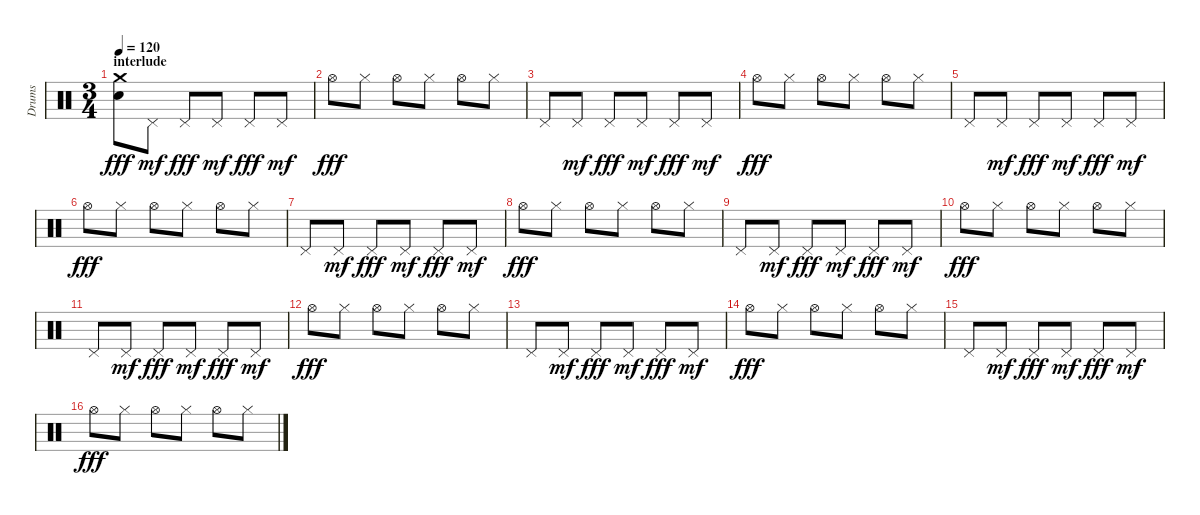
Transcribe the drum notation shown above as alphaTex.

\track ("Drums" "Drums") {instrument percussion}
\staff {score}
\articulation defaults
\ts (3 4)
\section ("" "interlude")
\tempo 120
\clef neutral
\ks c
("Crash medium (hit)" "Electric Snare (hit)").8{dy fff} "Pedal Hi-Hat (hit)".8{dy mf} "Pedal Hi-Hat (hit)".8{dy fff} "Pedal Hi-Hat (hit)".8{dy mf} "Pedal Hi-Hat (hit)".8{dy fff} "Pedal Hi-Hat (hit)".8{dy mf} |
"Hi-Hat (open)".8{dy fff} "Hi-Hat (closed)".8 "Hi-Hat (open)".8 "Hi-Hat (closed)".8 "Hi-Hat (open)".8 "Hi-Hat (closed)".8 |
"Pedal Hi-Hat (hit)".8 "Pedal Hi-Hat (hit)".8{dy mf} "Pedal Hi-Hat (hit)".8{dy fff} "Pedal Hi-Hat (hit)".8{dy mf} "Pedal Hi-Hat (hit)".8{dy fff} "Pedal Hi-Hat (hit)".8{dy mf} |
"Hi-Hat (open)".8{dy fff} "Hi-Hat (closed)".8 "Hi-Hat (open)".8 "Hi-Hat (closed)".8 "Hi-Hat (open)".8 "Hi-Hat (closed)".8 |
"Pedal Hi-Hat (hit)".8 "Pedal Hi-Hat (hit)".8{dy mf} "Pedal Hi-Hat (hit)".8{dy fff} "Pedal Hi-Hat (hit)".8{dy mf} "Pedal Hi-Hat (hit)".8{dy fff} "Pedal Hi-Hat (hit)".8{dy mf} |
"Hi-Hat (open)".8{dy fff} "Hi-Hat (closed)".8 "Hi-Hat (open)".8 "Hi-Hat (closed)".8 "Hi-Hat (open)".8 "Hi-Hat (closed)".8 |
"Pedal Hi-Hat (hit)".8 "Pedal Hi-Hat (hit)".8{dy mf} "Pedal Hi-Hat (hit)".8{dy fff} "Pedal Hi-Hat (hit)".8{dy mf} "Pedal Hi-Hat (hit)".8{dy fff} "Pedal Hi-Hat (hit)".8{dy mf} |
"Hi-Hat (open)".8{dy fff} "Hi-Hat (closed)".8 "Hi-Hat (open)".8 "Hi-Hat (closed)".8 "Hi-Hat (open)".8 "Hi-Hat (closed)".8 |
"Pedal Hi-Hat (hit)".8 "Pedal Hi-Hat (hit)".8{dy mf} "Pedal Hi-Hat (hit)".8{dy fff} "Pedal Hi-Hat (hit)".8{dy mf} "Pedal Hi-Hat (hit)".8{dy fff} "Pedal Hi-Hat (hit)".8{dy mf} |
"Hi-Hat (open)".8{dy fff} "Hi-Hat (closed)".8 "Hi-Hat (open)".8 "Hi-Hat (closed)".8 "Hi-Hat (open)".8 "Hi-Hat (closed)".8 |
"Pedal Hi-Hat (hit)".8 "Pedal Hi-Hat (hit)".8{dy mf} "Pedal Hi-Hat (hit)".8{dy fff} "Pedal Hi-Hat (hit)".8{dy mf} "Pedal Hi-Hat (hit)".8{dy fff} "Pedal Hi-Hat (hit)".8{dy mf} |
"Hi-Hat (open)".8{dy fff} "Hi-Hat (closed)".8 "Hi-Hat (open)".8 "Hi-Hat (closed)".8 "Hi-Hat (open)".8 "Hi-Hat (closed)".8 |
"Pedal Hi-Hat (hit)".8 "Pedal Hi-Hat (hit)".8{dy mf} "Pedal Hi-Hat (hit)".8{dy fff} "Pedal Hi-Hat (hit)".8{dy mf} "Pedal Hi-Hat (hit)".8{dy fff} "Pedal Hi-Hat (hit)".8{dy mf} |
"Hi-Hat (open)".8{dy fff} "Hi-Hat (closed)".8 "Hi-Hat (open)".8 "Hi-Hat (closed)".8 "Hi-Hat (open)".8 "Hi-Hat (closed)".8 |
"Pedal Hi-Hat (hit)".8 "Pedal Hi-Hat (hit)".8{dy mf} "Pedal Hi-Hat (hit)".8{dy fff} "Pedal Hi-Hat (hit)".8{dy mf} "Pedal Hi-Hat (hit)".8{dy fff} "Pedal Hi-Hat (hit)".8{dy mf} |
"Hi-Hat (open)".8{dy fff} "Hi-Hat (closed)".8 "Hi-Hat (open)".8 "Hi-Hat (closed)".8 "Hi-Hat (open)".8 "Hi-Hat (closed)".8
